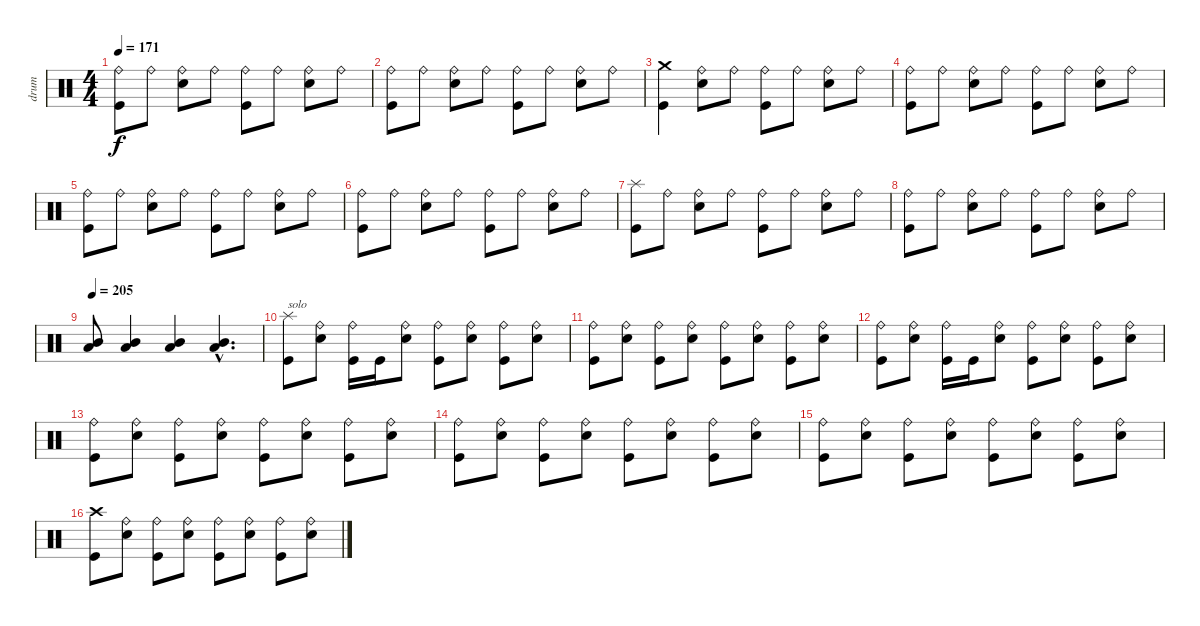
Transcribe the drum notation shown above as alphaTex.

\track ("drum" "drum") {instrument percussion}
\staff {score}
\articulation defaults
\ts (4 4)
\tempo 171
\clef neutral
\ks c
("Kick (hit)" "Ride (bell)").8{dy f} "Ride (bell)".8 ("Electric Snare (hit)" "Ride (bell)").8 "Ride (bell)".8 ("Kick (hit)" "Ride (bell)").8 "Ride (bell)".8 ("Electric Snare (hit)" "Ride (bell)").8 "Ride (bell)".8 |
("Kick (hit)" "Ride (bell)").8 "Ride (bell)".8 ("Electric Snare (hit)" "Ride (bell)").8 "Ride (bell)".8 ("Kick (hit)" "Ride (bell)").8 "Ride (bell)".8 ("Electric Snare (hit)" "Ride (bell)").8 "Ride (bell)".8 |
("Kick (hit)" "Crash medium (hit)").4 ("Electric Snare (hit)" "Ride (bell)").8 "Ride (bell)".8 ("Kick (hit)" "Ride (bell)").8 "Ride (bell)".8 ("Electric Snare (hit)" "Ride (bell)").8 "Ride (bell)".8 |
("Kick (hit)" "Ride (bell)").8 "Ride (bell)".8 ("Electric Snare (hit)" "Ride (bell)").8 "Ride (bell)".8 ("Kick (hit)" "Ride (bell)").8 "Ride (bell)".8 ("Electric Snare (hit)" "Ride (bell)").8 "Ride (bell)".8 |
("Kick (hit)" "Ride (bell)").8 "Ride (bell)".8 ("Electric Snare (hit)" "Ride (bell)").8 "Ride (bell)".8 ("Kick (hit)" "Ride (bell)").8 "Ride (bell)".8 ("Electric Snare (hit)" "Ride (bell)").8 "Ride (bell)".8 |
("Kick (hit)" "Ride (bell)").8 "Ride (bell)".8 ("Electric Snare (hit)" "Ride (bell)").8 "Ride (bell)".8 ("Kick (hit)" "Ride (bell)").8 "Ride (bell)".8 ("Electric Snare (hit)" "Ride (bell)").8 "Ride (bell)".8 |
("Kick (hit)" "Splash (hit)").8 "Ride (bell)".8 ("Electric Snare (hit)" "Ride (bell)").8 "Ride (bell)".8 ("Kick (hit)" "Ride (bell)").8 "Ride (bell)".8 ("Electric Snare (hit)" "Ride (bell)").8 "Ride (bell)".8 |
("Kick (hit)" "Ride (bell)").8 "Ride (bell)".8 ("Electric Snare (hit)" "Ride (bell)").8 "Ride (bell)".8 ("Kick (hit)" "Ride (bell)").8 "Ride (bell)".8 ("Electric Snare (hit)" "Ride (bell)").8 "Ride (bell)".8 |
\tempo 205
("Low Tom (hit)" "Mid Tom (hit)").8 ("Low Tom (hit)" "Mid Tom (hit)").4 ("Low Tom (hit)" "Mid Tom (hit)").4 ("Low Tom (hit)"{hac} "Mid Tom (hit)"{hac}).4{d} |
("Kick (hit)" "Splash (hit)").8{txt "solo"} ("Electric Snare (hit)" "Ride (bell)").8 ("Kick (hit)" "Ride (bell)").16 "Kick (hit)".16 ("Electric Snare (hit)" "Ride (bell)").8 ("Kick (hit)" "Ride (bell)").8 ("Electric Snare (hit)" "Ride (bell)").8 ("Kick (hit)" "Ride (bell)").8 ("Electric Snare (hit)" "Ride (bell)").8 |
("Kick (hit)" "Ride (bell)").8 ("Electric Snare (hit)" "Ride (bell)").8 ("Kick (hit)" "Ride (bell)").8 ("Electric Snare (hit)" "Ride (bell)").8 ("Kick (hit)" "Ride (bell)").8 ("Electric Snare (hit)" "Ride (bell)").8 ("Kick (hit)" "Ride (bell)").8 ("Electric Snare (hit)" "Ride (bell)").8 |
("Kick (hit)" "Ride (bell)").8 ("Electric Snare (hit)" "Ride (bell)").8 ("Kick (hit)" "Ride (bell)").16 "Kick (hit)".16 ("Electric Snare (hit)" "Ride (bell)").8 ("Kick (hit)" "Ride (bell)").8 ("Electric Snare (hit)" "Ride (bell)").8 ("Kick (hit)" "Ride (bell)").8 ("Electric Snare (hit)" "Ride (bell)").8 |
("Kick (hit)" "Ride (bell)").8 ("Electric Snare (hit)" "Ride (bell)").8 ("Kick (hit)" "Ride (bell)").8 ("Electric Snare (hit)" "Ride (bell)").8 ("Kick (hit)" "Ride (bell)").8 ("Electric Snare (hit)" "Ride (bell)").8 ("Kick (hit)" "Ride (bell)").8 ("Electric Snare (hit)" "Ride (bell)").8 |
("Kick (hit)" "Ride (bell)").8 ("Electric Snare (hit)" "Ride (bell)").8 ("Kick (hit)" "Ride (bell)").8 ("Electric Snare (hit)" "Ride (bell)").8 ("Kick (hit)" "Ride (bell)").8 ("Electric Snare (hit)" "Ride (bell)").8 ("Kick (hit)" "Ride (bell)").8 ("Electric Snare (hit)" "Ride (bell)").8 |
("Kick (hit)" "Ride (bell)").8 ("Electric Snare (hit)" "Ride (bell)").8 ("Kick (hit)" "Ride (bell)").8 ("Electric Snare (hit)" "Ride (bell)").8 ("Kick (hit)" "Ride (bell)").8 ("Electric Snare (hit)" "Ride (bell)").8 ("Kick (hit)" "Ride (bell)").8 ("Electric Snare (hit)" "Ride (bell)").8 |
("Kick (hit)" "Crash high (hit)").8 ("Electric Snare (hit)" "Ride (bell)").8 ("Kick (hit)" "Ride (bell)").8 ("Electric Snare (hit)" "Ride (bell)").8 ("Kick (hit)" "Ride (bell)").8 ("Electric Snare (hit)" "Ride (bell)").8 ("Kick (hit)" "Ride (bell)").8 ("Electric Snare (hit)" "Ride (bell)").8
